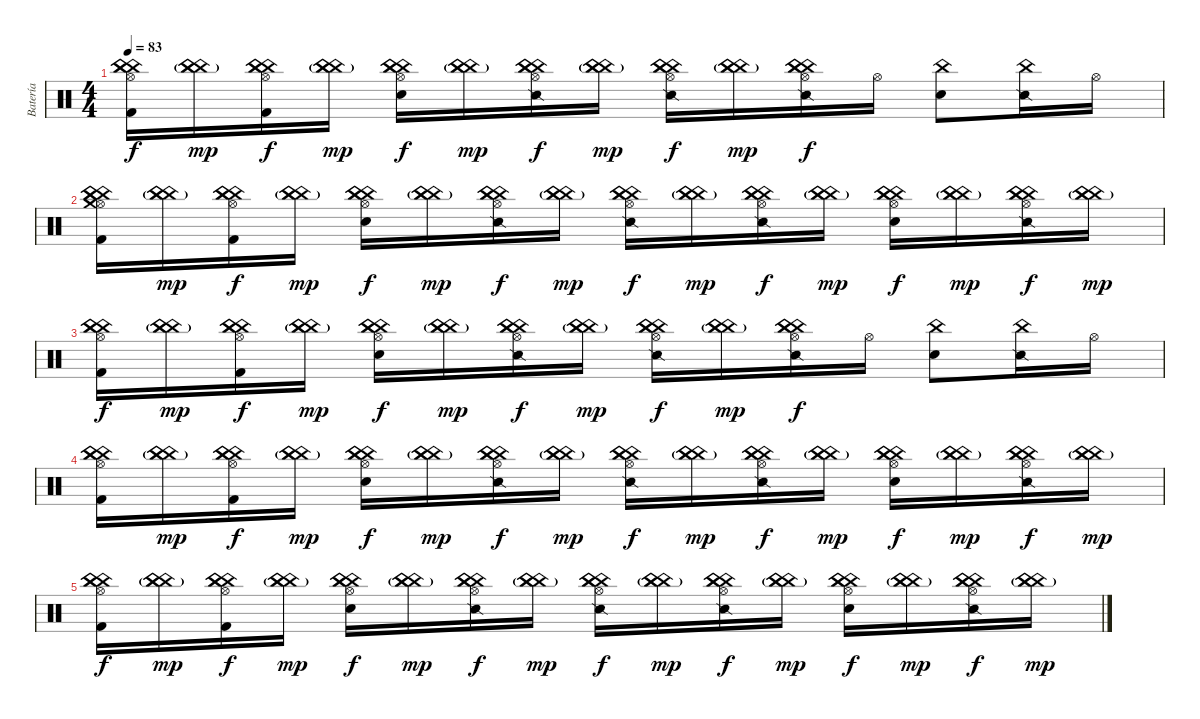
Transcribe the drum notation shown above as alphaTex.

\track ("Batería" "Batería") {instrument percussion}
\staff {score}
\articulation defaults
\ts (4 4)
\tempo 83
\clef neutral
\ks c
("Hi-Hat (open)" "China (hit)" "China (hit)" "China (hit)" "Kick (hit) 2").16{dy f} ("China (hit)"{g} "China (hit)"{g} "China (hit)"{g}).16{dy mp} ("Hi-Hat (open)" "China (hit)" "China (hit)" "China (hit)" "Kick (hit) 2").16{dy f} ("China (hit)"{g} "China (hit)"{g} "China (hit)"{g}).16{dy mp} ("Hi-Hat (open)" "China (hit)" "China (hit)" "China (hit)" "Electric Snare (hit)").16{dy f} ("China (hit)"{g} "China (hit)"{g} "China (hit)"{g}).16{dy mp} ("Hi-Hat (open)" "China (hit)" "China (hit)" "China (hit)" "Snare (side stick) 2").16{dy f} ("China (hit)"{g} "China (hit)"{g} "China (hit)"{g}).16{dy mp} ("Hi-Hat (open)" "China (hit)" "China (hit)" "China (hit)" "Snare (side stick) 2").16{dy f} ("China (hit)"{g} "China (hit)"{g} "China (hit)"{g}).16{dy mp} ("Hi-Hat (open)" "China (hit)" "China (hit)" "China (hit)" "Snare (side stick) 2").16{dy f} "Hi-Hat (open)".16 ("China (hit)" "Electric Snare (hit)").8 ("China (hit)" "Snare (side stick) 2").16 "Hi-Hat (open)".16 |
("Hi-Hat (open)" "China (hit)" "China (hit)" "China (hit)" "Kick (hit) 2" "Crash medium (hit)").16 ("China (hit)"{g} "China (hit)"{g} "China (hit)"{g}).16{dy mp} ("Hi-Hat (open)" "China (hit)" "China (hit)" "China (hit)" "Kick (hit) 2").16{dy f} ("China (hit)"{g} "China (hit)"{g} "China (hit)"{g}).16{dy mp} ("Hi-Hat (open)" "China (hit)" "China (hit)" "China (hit)" "Electric Snare (hit)").16{dy f} ("China (hit)"{g} "China (hit)"{g} "China (hit)"{g}).16{dy mp} ("Hi-Hat (open)" "China (hit)" "China (hit)" "China (hit)" "Snare (side stick) 2").16{dy f} ("China (hit)"{g} "China (hit)"{g} "China (hit)"{g}).16{dy mp} ("Hi-Hat (open)" "China (hit)" "China (hit)" "China (hit)" "Snare (side stick) 2").16{dy f} ("China (hit)"{g} "China (hit)"{g} "China (hit)"{g}).16{dy mp} ("Hi-Hat (open)" "China (hit)" "China (hit)" "China (hit)" "Snare (side stick) 2").16{dy f} ("China (hit)"{g} "China (hit)"{g} "China (hit)"{g}).16{dy mp} ("Hi-Hat (open)" "China (hit)" "China (hit)" "China (hit)" "Electric Snare (hit)").16{dy f} ("China (hit)"{g} "China (hit)"{g} "China (hit)"{g}).16{dy mp} ("Hi-Hat (open)" "China (hit)" "China (hit)" "China (hit)" "Snare (side stick) 2").16{dy f} ("China (hit)"{g} "China (hit)"{g} "China (hit)"{g}).16{dy mp} |
("Hi-Hat (open)" "China (hit)" "China (hit)" "China (hit)" "Kick (hit) 2").16{dy f} ("China (hit)"{g} "China (hit)"{g} "China (hit)"{g}).16{dy mp} ("Hi-Hat (open)" "China (hit)" "China (hit)" "China (hit)" "Kick (hit) 2").16{dy f} ("China (hit)"{g} "China (hit)"{g} "China (hit)"{g}).16{dy mp} ("Hi-Hat (open)" "China (hit)" "China (hit)" "China (hit)" "Electric Snare (hit)").16{dy f} ("China (hit)"{g} "China (hit)"{g} "China (hit)"{g}).16{dy mp} ("Hi-Hat (open)" "China (hit)" "China (hit)" "China (hit)" "Snare (side stick) 2").16{dy f} ("China (hit)"{g} "China (hit)"{g} "China (hit)"{g}).16{dy mp} ("Hi-Hat (open)" "China (hit)" "China (hit)" "China (hit)" "Snare (side stick) 2").16{dy f} ("China (hit)"{g} "China (hit)"{g} "China (hit)"{g}).16{dy mp} ("Hi-Hat (open)" "China (hit)" "China (hit)" "China (hit)" "Snare (side stick) 2").16{dy f} "Hi-Hat (open)".16 ("China (hit)" "Electric Snare (hit)").8 ("China (hit)" "Snare (side stick) 2").16 "Hi-Hat (open)".16 |
("Hi-Hat (open)" "China (hit)" "China (hit)" "China (hit)" "Kick (hit) 2").16 ("China (hit)"{g} "China (hit)"{g} "China (hit)"{g}).16{dy mp} ("Hi-Hat (open)" "China (hit)" "China (hit)" "China (hit)" "Kick (hit) 2").16{dy f} ("China (hit)"{g} "China (hit)"{g} "China (hit)"{g}).16{dy mp} ("Hi-Hat (open)" "China (hit)" "China (hit)" "China (hit)" "Electric Snare (hit)").16{dy f} ("China (hit)"{g} "China (hit)"{g} "China (hit)"{g}).16{dy mp} ("Hi-Hat (open)" "China (hit)" "China (hit)" "China (hit)" "Snare (side stick) 2").16{dy f} ("China (hit)"{g} "China (hit)"{g} "China (hit)"{g}).16{dy mp} ("Hi-Hat (open)" "China (hit)" "China (hit)" "China (hit)" "Snare (side stick) 2").16{dy f} ("China (hit)"{g} "China (hit)"{g} "China (hit)"{g}).16{dy mp} ("Hi-Hat (open)" "China (hit)" "China (hit)" "China (hit)" "Snare (side stick) 2").16{dy f} ("China (hit)"{g} "China (hit)"{g} "China (hit)"{g}).16{dy mp} ("Hi-Hat (open)" "China (hit)" "China (hit)" "China (hit)" "Electric Snare (hit)").16{dy f} ("China (hit)"{g} "China (hit)"{g} "China (hit)"{g}).16{dy mp} ("Hi-Hat (open)" "China (hit)" "China (hit)" "China (hit)" "Snare (side stick) 2").16{dy f} ("China (hit)"{g} "China (hit)"{g} "China (hit)"{g}).16{dy mp} |
("Hi-Hat (open)" "China (hit)" "China (hit)" "China (hit)" "Kick (hit) 2").16{dy f} ("China (hit)"{g} "China (hit)"{g} "China (hit)"{g}).16{dy mp} ("Hi-Hat (open)" "China (hit)" "China (hit)" "China (hit)" "Kick (hit) 2").16{dy f} ("China (hit)"{g} "China (hit)"{g} "China (hit)"{g}).16{dy mp} ("Hi-Hat (open)" "China (hit)" "China (hit)" "China (hit)" "Electric Snare (hit)").16{dy f} ("China (hit)"{g} "China (hit)"{g} "China (hit)"{g}).16{dy mp} ("Hi-Hat (open)" "China (hit)" "China (hit)" "China (hit)" "Snare (side stick) 2").16{dy f} ("China (hit)"{g} "China (hit)"{g} "China (hit)"{g}).16{dy mp} ("Hi-Hat (open)" "China (hit)" "China (hit)" "China (hit)" "Snare (side stick) 2").16{dy f} ("China (hit)"{g} "China (hit)"{g} "China (hit)"{g}).16{dy mp} ("Hi-Hat (open)" "China (hit)" "China (hit)" "China (hit)" "Snare (side stick) 2").16{dy f} ("China (hit)"{g} "China (hit)"{g} "China (hit)"{g}).16{dy mp} ("Hi-Hat (open)" "China (hit)" "China (hit)" "China (hit)" "Electric Snare (hit)").16{dy f} ("China (hit)"{g} "China (hit)"{g} "China (hit)"{g}).16{dy mp} ("Hi-Hat (open)" "China (hit)" "China (hit)" "China (hit)" "Snare (side stick) 2").16{dy f} ("China (hit)"{g} "China (hit)"{g} "China (hit)"{g}).16{dy mp}
